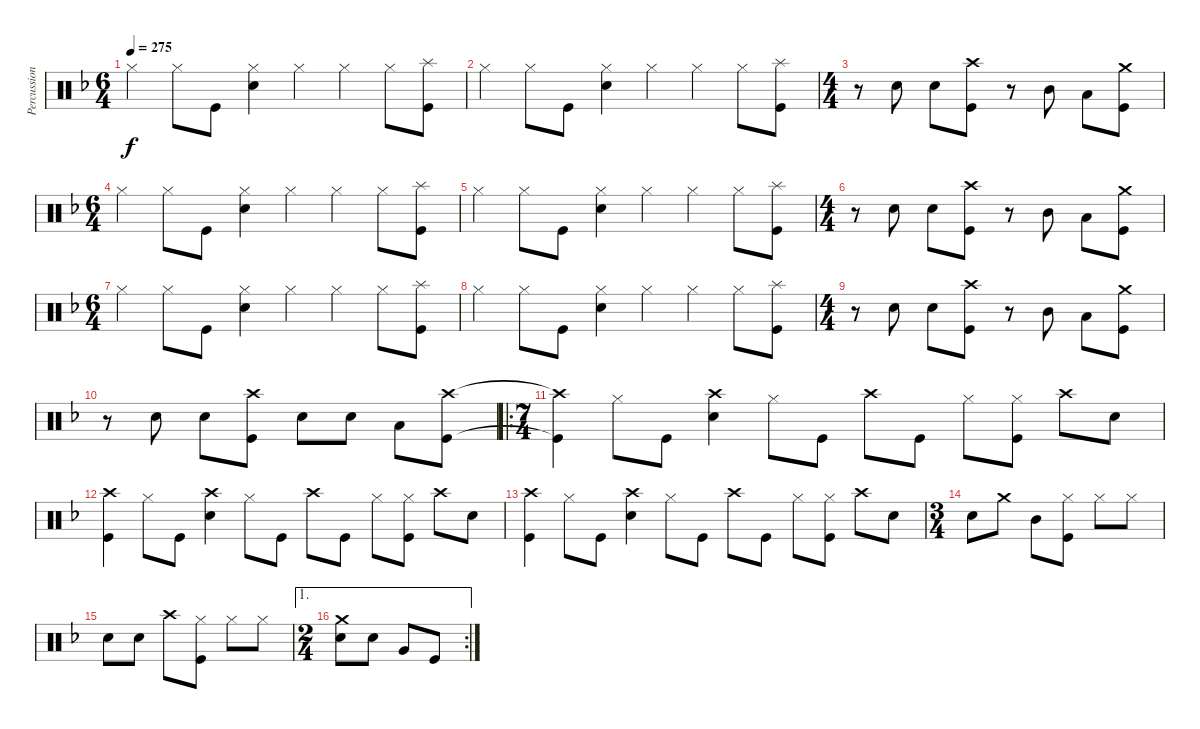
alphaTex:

\track ("Percussion" "Percussion") {instrument percussion}
\staff {score}
\articulation defaults
\ts (6 4)
\tempo 275
\clef neutral
\ks dminor "Hi-Hat (closed)".4{dy f} "Hi-Hat (closed)".8 "Kick (hit)".8
("Hi-Hat (closed)" "Snare (hit) 2").4 "Hi-Hat (closed)".4 "Hi-Hat (closed)".4 "Hi-Hat (closed)".8 ("Splash (hit)" "Kick (hit)").8 |
"Hi-Hat (closed)".4 "Hi-Hat (closed)".8 "Kick (hit)".8 ("Hi-Hat (closed)" "Snare (hit) 2").4 "Hi-Hat (closed)".4 "Hi-Hat (closed)".4 "Hi-Hat (closed)".8 ("Splash (hit)" "Kick (hit)").8 |
\ts (4 4)
r.8 "Snare (hit) 2".8 "Snare (hit) 2".8 ("Crash high (hit)" "Kick (hit)").8 r.8 "Mid Tom (hit)".8 "Low Tom (hit)".8 ("Crash medium (hit)" "Kick (hit)").8 |
\ts (6 4)
"Hi-Hat (closed)".4 "Hi-Hat (closed)".8 "Kick (hit)".8 ("Hi-Hat (closed)" "Snare (hit) 2").4 "Hi-Hat (closed)".4 "Hi-Hat (closed)".4 "Hi-Hat (closed)".8 ("Splash (hit)" "Kick (hit)").8 |
"Hi-Hat (closed)".4 "Hi-Hat (closed)".8 "Kick (hit)".8 ("Hi-Hat (closed)" "Snare (hit) 2").4 "Hi-Hat (closed)".4 "Hi-Hat (closed)".4 "Hi-Hat (closed)".8 ("Splash (hit)" "Kick (hit)").8 |
\ts (4 4)
r.8 "Snare (hit) 2".8 "Snare (hit) 2".8 ("Crash high (hit)" "Kick (hit)").8 r.8 "Mid Tom (hit)".8 "Low Tom (hit)".8 ("Crash medium (hit)" "Kick (hit)").8 |
\ts (6 4)
"Hi-Hat (closed)".4 "Hi-Hat (closed)".8 "Kick (hit)".8 ("Hi-Hat (closed)" "Snare (hit) 2").4 "Hi-Hat (closed)".4 "Hi-Hat (closed)".4 "Hi-Hat (closed)".8 ("Splash (hit)" "Kick (hit)").8 |
"Hi-Hat (closed)".4 "Hi-Hat (closed)".8 "Kick (hit)".8 ("Hi-Hat (closed)" "Snare (hit) 2").4 "Hi-Hat (closed)".4 "Hi-Hat (closed)".4 "Hi-Hat (closed)".8 ("Splash (hit)" "Kick (hit)").8 |
\ts (4 4)
r.8 "Snare (hit) 2".8 "Snare (hit) 2".8 ("Crash high (hit)" "Kick (hit)").8 r.8 "Mid Tom (hit)".8 "Low Tom (hit)".8 ("Crash medium (hit)" "Kick (hit)").8 |
r.8 "Snare (hit) 2".8 "Snare (hit) 2".8 ("Crash high (hit)" "Kick (hit)").8 "Snare (hit) 2".8 "Snare (hit) 2".8 "Low Tom (hit)".8 ("Crash high (hit)" "Kick (hit)").8 |
\ro
\ts (7 4)
("Crash high (hit)"{t} "Kick (hit)"{t}).4 "Hi-Hat (closed)".8 "Kick (hit)".8 ("Crash high (hit)" "Snare (hit) 2").4 "Hi-Hat (closed)".8 "Kick (hit)".8 "Crash high (hit)".8 "Kick (hit)".8 "Hi-Hat (closed)".8 ("Hi-Hat (closed)" "Kick (hit)").8 "Crash high (hit)".8 "Snare (hit) 2".8 |
("Crash high (hit)" "Kick (hit)").4 "Hi-Hat (closed)".8 "Kick (hit)".8 ("Crash high (hit)" "Snare (hit) 2").4 "Hi-Hat (closed)".8 "Kick (hit)".8 "Crash high (hit)".8 "Kick (hit)".8 "Hi-Hat (closed)".8 ("Hi-Hat (closed)" "Kick (hit)").8 "Crash high (hit)".8 "Snare (hit) 2".8 |
("Crash high (hit)" "Kick (hit)").4 "Hi-Hat (closed)".8 "Kick (hit)".8 ("Crash high (hit)" "Snare (hit) 2").4 "Hi-Hat (closed)".8 "Kick (hit)".8 "Crash high (hit)".8 "Kick (hit)".8 "Hi-Hat (closed)".8 ("Hi-Hat (closed)" "Kick (hit)").8 "Crash high (hit)".8 "Snare (hit) 2".8 |
\ts (3 4)
"Snare (hit) 2".8 "Crash medium (hit)".8 "Mid Tom (hit)".8 ("Hi-Hat (closed)" "Kick (hit)").8 "Hi-Hat (closed)".8 "Hi-Hat (closed)".8 |
"Snare (hit) 2".8 "Snare (hit) 2".8 "Crash high (hit)".8 ("Hi-Hat (closed)" "Kick (hit)").8 "Hi-Hat (closed)".8 "Hi-Hat (closed)".8 |
\ae 1
\rc 2
\ts (2 4)
("Crash medium (hit)" "Snare (hit) 2").8 "Snare (hit) 2".8 "Very Low Tom (hit)".8 "Kick (hit)".8
